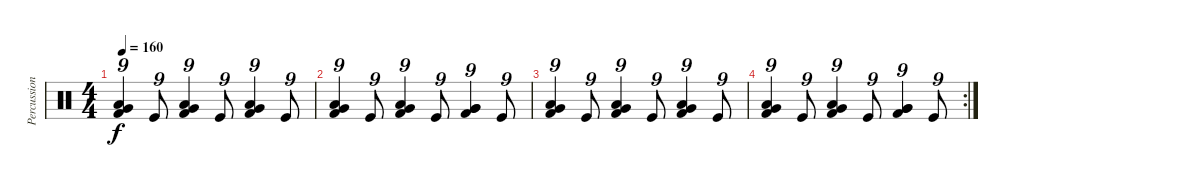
\track ("Percussion" "Percussion") {instrument percussion}
\staff {score}
\articulation defaults
\ts (4 4)
\tempo 160
\clef neutral
\ks c
("Very Low Tom (hit)" "Kick (hit) 2" "Low Floor Tom (hit)").4{tu (9 8) dy f} "Kick (hit)".8{tu (9 8)} ("Very Low Tom (hit)" "Kick (hit) 2" "Low Floor Tom (hit)").4{tu (9 8)} "Kick (hit)".8{tu (9 8)} ("Very Low Tom (hit)" "Kick (hit) 2" "Low Tom (hit)").4{tu (9 8)} "Kick (hit)".8{tu (9 8)} |
("Very Low Tom (hit)" "Kick (hit) 2" "Low Floor Tom (hit)").4{tu (9 8)} "Kick (hit)".8{tu (9 8)} ("Very Low Tom (hit)" "Kick (hit) 2" "Low Floor Tom (hit)").4{tu (9 8)} "Kick (hit)".8{tu (9 8)} ("Very Low Tom (hit)" "Kick (hit) 2" "Very Low Tom (hit)").4{tu (9 8)} "Kick (hit)".8{tu (9 8)} |
("Very Low Tom (hit)" "Kick (hit) 2" "Low Floor Tom (hit)").4{tu (9 8)} "Kick (hit)".8{tu (9 8)} ("Very Low Tom (hit)" "Kick (hit) 2" "Low Floor Tom (hit)").4{tu (9 8)} "Kick (hit)".8{tu (9 8)} ("Very Low Tom (hit)" "Kick (hit) 2" "Low Tom (hit)").4{tu (9 8)} "Kick (hit)".8{tu (9 8)} |
\rc 2
("Very Low Tom (hit)" "Kick (hit) 2" "Low Floor Tom (hit)").4{tu (9 8)} "Kick (hit)".8{tu (9 8)} ("Very Low Tom (hit)" "Kick (hit) 2" "Low Floor Tom (hit)").4{tu (9 8)} "Kick (hit)".8{tu (9 8)} ("Very Low Tom (hit)" "Kick (hit) 2" "Very Low Tom (hit)").4{tu (9 8)} "Kick (hit)".8{tu (9 8)}
